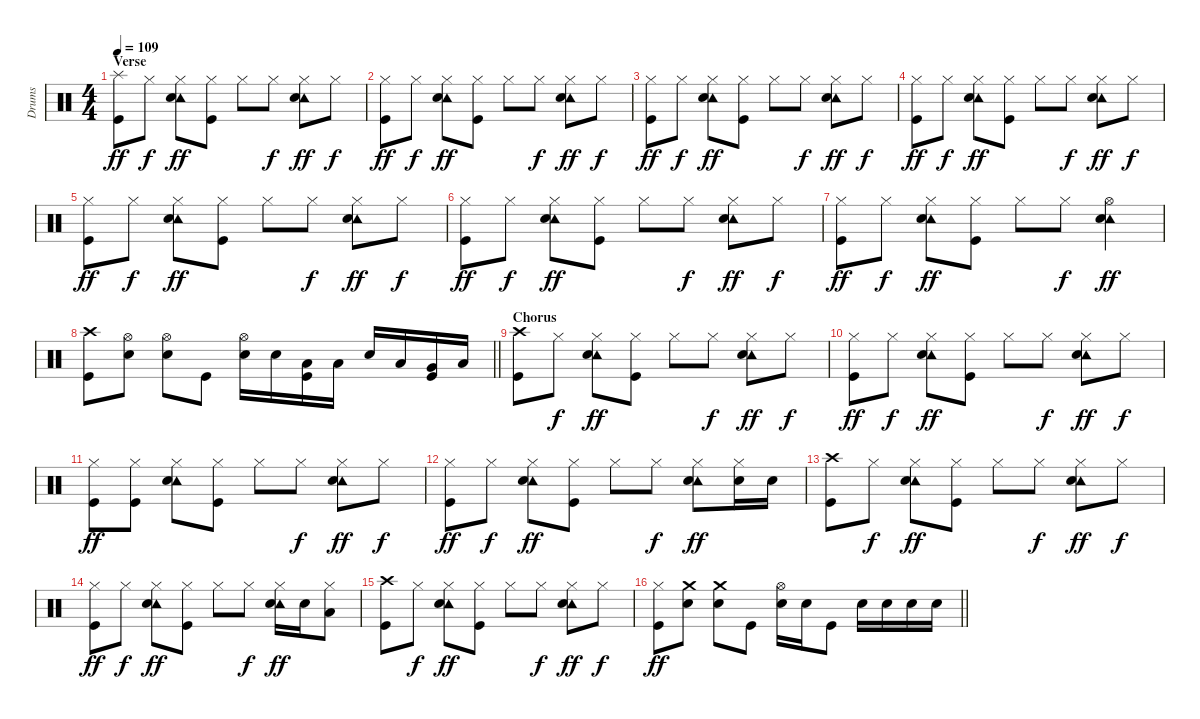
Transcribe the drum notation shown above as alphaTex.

\track ("Drums" "Drums") {instrument percussion}
\staff {score}
\articulation defaults
\ts (4 4)
\section ("" "Verse")
\tempo 109
\clef neutral
\ks c
("Splash (hit)" "Kick (hit)").8{dy ff} "Hi-Hat (closed)".8{dy f} ("Hi-Hat (closed)" "Tambourine (hit)" "Electric Snare (hit)").8{dy ff} ("Hi-Hat (closed)" "Kick (hit)").8 "Hi-Hat (closed)".8 "Hi-Hat (closed)".8{dy f} ("Hi-Hat (closed)" "Tambourine (hit)" "Electric Snare (hit)").8{dy ff} "Hi-Hat (closed)".8{dy f} |
("Hi-Hat (closed)" "Kick (hit)").8{dy ff} "Hi-Hat (closed)".8{dy f} ("Hi-Hat (closed)" "Tambourine (hit)" "Electric Snare (hit)").8{dy ff} ("Hi-Hat (closed)" "Kick (hit)").8 "Hi-Hat (closed)".8 "Hi-Hat (closed)".8{dy f} ("Hi-Hat (closed)" "Tambourine (hit)" "Electric Snare (hit)").8{dy ff} "Hi-Hat (closed)".8{dy f} |
("Hi-Hat (closed)" "Kick (hit)").8{dy ff} "Hi-Hat (closed)".8{dy f} ("Hi-Hat (closed)" "Tambourine (hit)" "Electric Snare (hit)").8{dy ff} ("Hi-Hat (closed)" "Kick (hit)").8 "Hi-Hat (closed)".8 "Hi-Hat (closed)".8{dy f} ("Hi-Hat (closed)" "Tambourine (hit)" "Electric Snare (hit)").8{dy ff} "Hi-Hat (closed)".8{dy f} |
("Hi-Hat (closed)" "Kick (hit)").8{dy ff} "Hi-Hat (closed)".8{dy f} ("Hi-Hat (closed)" "Tambourine (hit)" "Electric Snare (hit)").8{dy ff} ("Hi-Hat (closed)" "Kick (hit)").8 "Hi-Hat (closed)".8 "Hi-Hat (closed)".8{dy f} ("Hi-Hat (closed)" "Tambourine (hit)" "Electric Snare (hit)").8{dy ff} "Hi-Hat (closed)".8{dy f} |
("Hi-Hat (closed)" "Kick (hit)").8{dy ff} "Hi-Hat (closed)".8{dy f} ("Hi-Hat (closed)" "Tambourine (hit)" "Electric Snare (hit)").8{dy ff} ("Hi-Hat (closed)" "Kick (hit)").8 "Hi-Hat (closed)".8 "Hi-Hat (closed)".8{dy f} ("Hi-Hat (closed)" "Tambourine (hit)" "Electric Snare (hit)").8{dy ff} "Hi-Hat (closed)".8{dy f} |
("Hi-Hat (closed)" "Kick (hit)").8{dy ff} "Hi-Hat (closed)".8{dy f} ("Hi-Hat (closed)" "Tambourine (hit)" "Electric Snare (hit)").8{dy ff} ("Hi-Hat (closed)" "Kick (hit)").8 "Hi-Hat (closed)".8 "Hi-Hat (closed)".8{dy f} ("Hi-Hat (closed)" "Tambourine (hit)" "Electric Snare (hit)").8{dy ff} "Hi-Hat (closed)".8{dy f} |
("Hi-Hat (closed)" "Kick (hit)").8{dy ff} "Hi-Hat (closed)".8{dy f} ("Hi-Hat (closed)" "Tambourine (hit)" "Electric Snare (hit)").8{dy ff} ("Hi-Hat (closed)" "Kick (hit)").8 "Hi-Hat (closed)".8 "Hi-Hat (closed)".8{dy f} ("Hi-Hat (open)" "Tambourine (hit)" "Electric Snare (hit)").4{dy ff} |
\barLineRight lightlight
("Crash high (hit)" "Kick (hit)").8 ("Hi-Hat (open)" "Electric Snare (hit)").8 ("Hi-Hat (open)" "Electric Snare (hit)").8 "Kick (hit)".8 ("Hi-Hat (open)" "Electric Snare (hit)").16 "Electric Snare (hit)".16 ("Low Tom (hit)" "Kick (hit)").16 "Low Tom (hit)".16 "Electric Snare (hit)".16 "Low Tom (hit)".16 ("Very Low Tom (hit)" "Kick (hit)").16 "Low Floor Tom (hit)".16 |
\section ("" "Chorus")
("Crash high (hit)" "Kick (hit)").8 "Hi-Hat (closed)".8{dy f} ("Hi-Hat (closed)" "Tambourine (hit)" "Electric Snare (hit)").8{dy ff} ("Hi-Hat (closed)" "Kick (hit)").8 "Hi-Hat (closed)".8 "Hi-Hat (closed)".8{dy f} ("Hi-Hat (closed)" "Tambourine (hit)" "Electric Snare (hit)").8{dy ff} "Hi-Hat (closed)".8{dy f} |
("Hi-Hat (closed)" "Kick (hit)").8{dy ff} "Hi-Hat (closed)".8{dy f} ("Hi-Hat (closed)" "Tambourine (hit)" "Electric Snare (hit)").8{dy ff} ("Hi-Hat (closed)" "Kick (hit)").8 "Hi-Hat (closed)".8 "Hi-Hat (closed)".8{dy f} ("Hi-Hat (closed)" "Tambourine (hit)" "Electric Snare (hit)").8{dy ff} "Hi-Hat (closed)".8{dy f} |
("Hi-Hat (closed)" "Kick (hit)").8{dy ff} ("Hi-Hat (closed)" "Kick (hit)").8 ("Hi-Hat (closed)" "Tambourine (hit)" "Electric Snare (hit)").8 ("Hi-Hat (closed)" "Kick (hit)").8 "Hi-Hat (closed)".8 "Hi-Hat (closed)".8{dy f} ("Hi-Hat (closed)" "Tambourine (hit)" "Electric Snare (hit)").8{dy ff} "Hi-Hat (closed)".8{dy f} |
("Hi-Hat (closed)" "Kick (hit)").8{dy ff} "Hi-Hat (closed)".8{dy f} ("Hi-Hat (closed)" "Tambourine (hit)" "Electric Snare (hit)").8{dy ff} ("Hi-Hat (closed)" "Kick (hit)").8 "Hi-Hat (closed)".8 "Hi-Hat (closed)".8{dy f} ("Hi-Hat (closed)" "Tambourine (hit)" "Electric Snare (hit)").8{dy ff} ("Hi-Hat (closed)" "Electric Snare (hit)").16 "Electric Snare (hit)".16 |
("Crash high (hit)" "Kick (hit)").8 "Hi-Hat (closed)".8{dy f} ("Hi-Hat (closed)" "Tambourine (hit)" "Electric Snare (hit)").8{dy ff} ("Hi-Hat (closed)" "Kick (hit)").8 "Hi-Hat (closed)".8 "Hi-Hat (closed)".8{dy f} ("Hi-Hat (closed)" "Tambourine (hit)" "Electric Snare (hit)").8{dy ff} "Hi-Hat (closed)".8{dy f} |
("Hi-Hat (closed)" "Kick (hit)").8{dy ff} "Hi-Hat (closed)".8{dy f} ("Hi-Hat (closed)" "Tambourine (hit)" "Electric Snare (hit)").8{dy ff} ("Hi-Hat (closed)" "Kick (hit)").8 "Hi-Hat (closed)".8 "Hi-Hat (closed)".8{dy f} ("Hi-Hat (closed)" "Tambourine (hit)" "Electric Snare (hit)").16{dy ff} "Electric Snare (hit)".16 ("Hi-Hat (closed)" "Low Tom (hit)").8 |
("Crash high (hit)" "Kick (hit)").8 "Hi-Hat (closed)".8{dy f} ("Hi-Hat (closed)" "Tambourine (hit)" "Electric Snare (hit)").8{dy ff} ("Hi-Hat (closed)" "Kick (hit)").8 "Hi-Hat (closed)".8 "Hi-Hat (closed)".8{dy f} ("Hi-Hat (closed)" "Tambourine (hit)" "Electric Snare (hit)").8{dy ff} "Hi-Hat (closed)".8{dy f} |
\barLineRight lightlight
("Hi-Hat (closed)" "Kick (hit)").8{dy ff} ("Crash medium (hit)" "Electric Snare (hit)").8 ("Crash medium (hit)" "Electric Snare (hit)").8 "Kick (hit)".8 ("Hi-Hat (open)" "Electric Snare (hit)").16 "Electric Snare (hit)".16 "Kick (hit)".8 "Electric Snare (hit)".16 "Electric Snare (hit)".16 "Electric Snare (hit)".16 "Electric Snare (hit)".16
